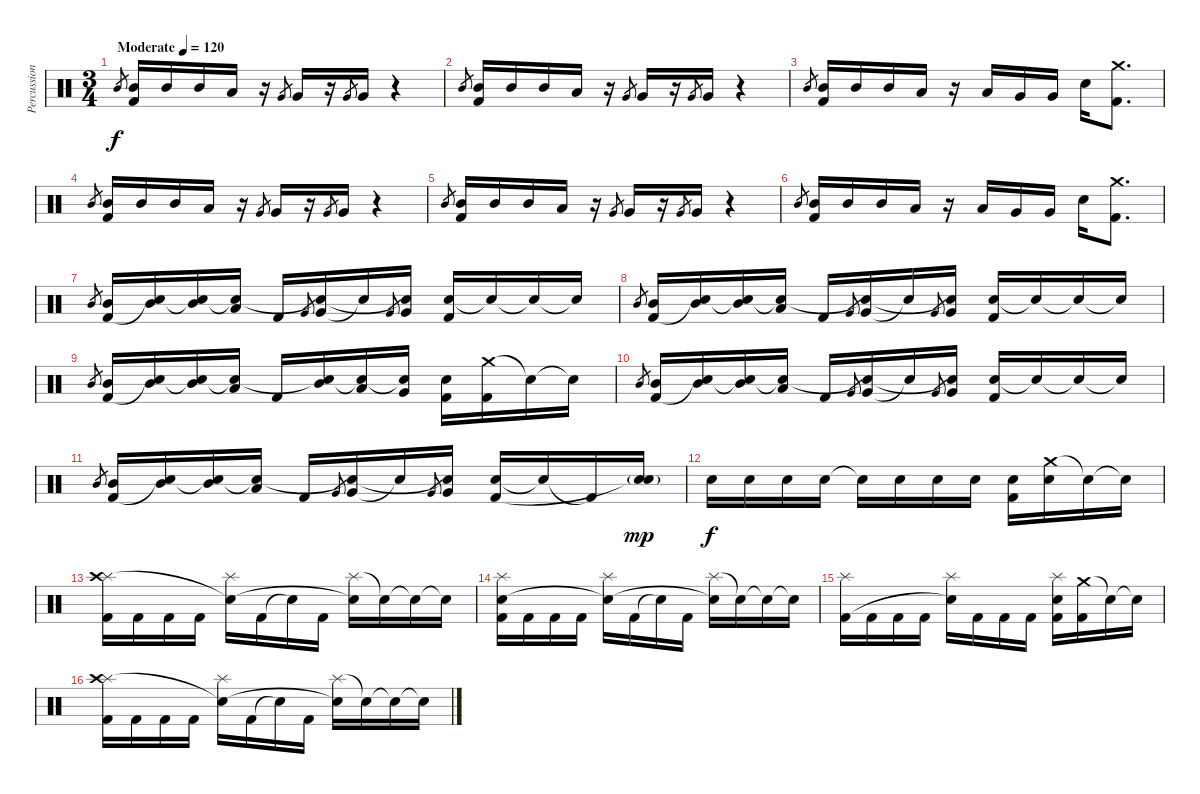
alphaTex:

\track ("Percussions" "Percussion") {instrument percussion}
\staff {score}
\articulation defaults
\ts (3 4)
\tempo (120 "Moderate")
\clef neutral
\ks c "Mid Tom (hit)".8{gr dy f}
("Mid Tom (hit)" "Kick (hit) 2").16 "Mid Tom (hit)".16 "Mid Tom (hit)".16 "Low Tom (hit)".16 r.16 "Very Low Tom (hit)".8{gr} "Very Low Tom (hit)".16 r.16 "Very Low Tom (hit)".8{gr} "Very Low Tom (hit)".16 r.4 |
"Mid Tom (hit)".8{gr} ("Mid Tom (hit)" "Kick (hit) 2").16 "Mid Tom (hit)".16 "Mid Tom (hit)".16 "Low Tom (hit)".16 r.16 "Very Low Tom (hit)".8{gr} "Very Low Tom (hit)".16 r.16 "Very Low Tom (hit)".8{gr} "Very Low Tom (hit)".16 r.4 |
"Mid Tom (hit)".8{gr} ("Mid Tom (hit)" "Kick (hit) 2").16 "Mid Tom (hit)".16 "Mid Tom (hit)".16 "Low Tom (hit)".16 r.16 "Low Tom (hit)".16 "Very Low Tom (hit)".16 "Very Low Tom (hit)".16 "Electric Snare (hit)".16 ("Crash medium (hit)" "Kick (hit) 2").8{d} |
"Mid Tom (hit)".8{gr} ("Mid Tom (hit)" "Kick (hit) 2").16 "Mid Tom (hit)".16 "Mid Tom (hit)".16 "Low Tom (hit)".16 r.16 "Very Low Tom (hit)".8{gr} "Very Low Tom (hit)".16 r.16 "Very Low Tom (hit)".8{gr} "Very Low Tom (hit)".16 r.4 |
"Mid Tom (hit)".8{gr} ("Mid Tom (hit)" "Kick (hit) 2").16 "Mid Tom (hit)".16 "Mid Tom (hit)".16 "Low Tom (hit)".16 r.16 "Very Low Tom (hit)".8{gr} "Very Low Tom (hit)".16 r.16 "Very Low Tom (hit)".8{gr} "Very Low Tom (hit)".16 r.4 |
"Mid Tom (hit)".8{gr} ("Mid Tom (hit)" "Kick (hit) 2").16 "Mid Tom (hit)".16 "Mid Tom (hit)".16 "Low Tom (hit)".16 r.16 "Low Tom (hit)".16 "Very Low Tom (hit)".16 "Very Low Tom (hit)".16 "Electric Snare (hit)".16 ("Crash medium (hit)" "Kick (hit) 2").8{d} |
"Mid Tom (hit)".8{gr} ("Mid Tom (hit)" "Kick (hit) 2").16 ("Mid Tom (hit)" "Snare (hit)"{t}).16 ("Mid Tom (hit)" "Snare (hit)"{t}).16 ("Low Tom (hit)" "Snare (hit)"{t}).16 "Kick (hit) 2".16 "Very Low Tom (hit)".8{gr} ("Very Low Tom (hit)" "Snare (hit)"{t}).16 "Snare (hit)"{t}.16 "Very Low Tom (hit)".8{gr} ("Very Low Tom (hit)" "Snare (hit)"{t}).16 ("Electric Snare (hit)" "Kick (hit) 2").16 "Snare (hit)"{t}.16 "Snare (hit)"{t}.16 "Snare (hit)"{t}.16 |
"Mid Tom (hit)".8{gr} ("Mid Tom (hit)" "Kick (hit) 2").16 ("Mid Tom (hit)" "Snare (hit)"{t}).16 ("Mid Tom (hit)" "Snare (hit)"{t}).16 ("Low Tom (hit)" "Snare (hit)"{t}).16 "Kick (hit) 2".16 "Very Low Tom (hit)".8{gr} ("Very Low Tom (hit)" "Snare (hit)"{t}).16 "Snare (hit)"{t}.16 "Very Low Tom (hit)".8{gr} ("Very Low Tom (hit)" "Snare (hit)"{t}).16 ("Electric Snare (hit)" "Kick (hit) 2").16 "Snare (hit)"{t}.16 "Snare (hit)"{t}.16 "Snare (hit)"{t}.16 |
"Mid Tom (hit)".8{gr} ("Mid Tom (hit)" "Kick (hit) 2").16 ("Mid Tom (hit)" "Snare (hit)"{t}).16 ("Mid Tom (hit)" "Snare (hit)"{t}).16 ("Low Tom (hit)" "Snare (hit)"{t}).16 "Kick (hit) 2".16 ("Mid Tom (hit)" "Snare (hit)"{t}).16 ("Low Tom (hit)" "Snare (hit)"{t}).16 ("Very Low Tom (hit)" "Snare (hit)"{t}).16 ("Electric Snare (hit)" "Kick (hit) 2").16 ("Crash medium (hit)" "Kick (hit) 2").16 "Snare (hit)"{t}.16 "Snare (hit)"{t}.16 |
"Mid Tom (hit)".8{gr} ("Mid Tom (hit)" "Kick (hit) 2").16 ("Mid Tom (hit)" "Snare (hit)"{t}).16 ("Mid Tom (hit)" "Snare (hit)"{t}).16 ("Low Tom (hit)" "Snare (hit)"{t}).16 "Kick (hit) 2".16 "Very Low Tom (hit)".8{gr} ("Very Low Tom (hit)" "Snare (hit)"{t}).16 "Snare (hit)"{t}.16 "Very Low Tom (hit)".8{gr} ("Very Low Tom (hit)" "Snare (hit)"{t}).16 ("Electric Snare (hit)" "Kick (hit) 2").16 "Snare (hit)"{t}.16 "Snare (hit)"{t}.16 "Snare (hit)"{t}.16 |
"Mid Tom (hit)".8{gr} ("Mid Tom (hit)" "Kick (hit) 2").16 ("Mid Tom (hit)" "Snare (hit)"{t}).16 ("Mid Tom (hit)" "Snare (hit)"{t}).16 ("Low Tom (hit)" "Snare (hit)"{t}).16 "Kick (hit) 2".16 "Very Low Tom (hit)".8{gr} ("Very Low Tom (hit)" "Snare (hit)"{t}).16 "Snare (hit)"{t}.16 "Very Low Tom (hit)".8{gr} ("Very Low Tom (hit)" "Snare (hit)"{t}).16 ("Electric Snare (hit)" "Kick (hit) 2").16 "Snare (hit)"{t}.16 "Kick (hit) 2"{t}.16 ("Electric Snare (hit)"{g} "Snare (hit)"{t}).16{dy mp} |
"Electric Snare (hit)".16{dy f} "Electric Snare (hit)".16 "Electric Snare (hit)".16 "Electric Snare (hit)".16 "Snare (hit)"{t}.16 "Electric Snare (hit)".16 "Electric Snare (hit)".16 "Electric Snare (hit)".16 ("Electric Snare (hit)" "Kick (hit) 2").16 ("Crash medium (hit)" "Electric Snare (hit)").16 "Snare (hit)"{t}.16 "Snare (hit)"{t}.16 |
("Splash (hit)" "Crash high (hit)" "Kick (hit) 2").16 "Kick (hit) 2".16 "Kick (hit) 2".16 "Kick (hit) 2".16 ("Splash (hit)" "Snare (hit)"{t}).16 "Kick (hit) 2".16 "Snare (hit)"{t}.16 "Kick (hit) 2".16 ("Splash (hit)" "Snare (hit)"{t}).16 "Snare (hit)"{t}.16 "Snare (hit)"{t}.16 "Snare (hit)"{t}.16 |
("Splash (hit)" "Electric Snare (hit)" "Kick (hit) 2").16 "Kick (hit) 2".16 "Kick (hit) 2".16 "Kick (hit) 2".16 ("Splash (hit)" "Snare (hit)"{t}).16 "Kick (hit) 2".16 "Snare (hit)"{t}.16 "Kick (hit) 2".16 ("Splash (hit)" "Snare (hit)"{t}).16 "Snare (hit)"{t}.16 "Snare (hit)"{t}.16 "Snare (hit)"{t}.16 |
("Splash (hit)" "Kick (hit) 2").16 "Kick (hit) 2".16 "Kick (hit) 2".16 "Kick (hit) 2".16 ("Splash (hit)" "Snare (hit)"{t}).16 "Kick (hit) 2".16 "Kick (hit) 2".16 "Kick (hit) 2".16 ("Splash (hit)" "Electric Snare (hit)" "Kick (hit) 2").16 ("Crash medium (hit)" "Kick (hit) 2").16 "Snare (hit)"{t}.16 "Snare (hit)"{t}.16 |
("Splash (hit)" "Crash high (hit)" "Kick (hit) 2").16 "Kick (hit) 2".16 "Kick (hit) 2".16 "Kick (hit) 2".16 ("Splash (hit)" "Snare (hit)"{t}).16 "Kick (hit) 2".16 "Snare (hit)"{t}.16 "Kick (hit) 2".16 ("Splash (hit)" "Snare (hit)"{t}).16 "Snare (hit)"{t}.16 "Snare (hit)"{t}.16 "Snare (hit)"{t}.16
